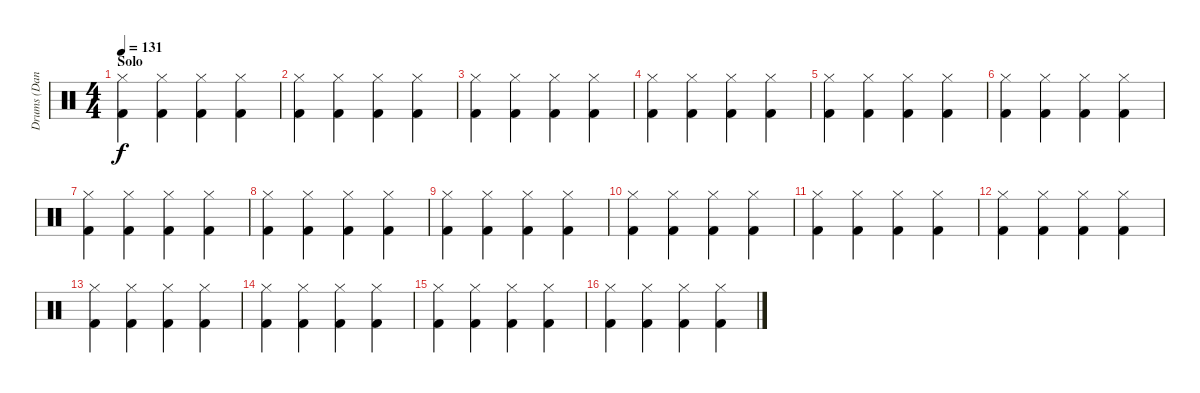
\track ("Drums (Danny Young)" "Drums (Dan") {instrument percussion}
\staff {score}
\articulation defaults
\ts (4 4)
\section ("" "Solo")
\tempo 131
\clef neutral
\ks c
("Hi-Hat (closed)" "Kick (hit) 2").4{dy f} ("Hi-Hat (closed)" "Kick (hit) 2").4 ("Hi-Hat (closed)" "Kick (hit) 2").4 ("Hi-Hat (closed)" "Kick (hit) 2").4 |
("Hi-Hat (closed)" "Kick (hit) 2").4 ("Hi-Hat (closed)" "Kick (hit) 2").4 ("Hi-Hat (closed)" "Kick (hit) 2").4 ("Hi-Hat (closed)" "Kick (hit) 2").4 |
("Hi-Hat (closed)" "Kick (hit) 2").4 ("Hi-Hat (closed)" "Kick (hit) 2").4 ("Hi-Hat (closed)" "Kick (hit) 2").4 ("Hi-Hat (closed)" "Kick (hit) 2").4 |
("Hi-Hat (closed)" "Kick (hit) 2").4 ("Hi-Hat (closed)" "Kick (hit) 2").4 ("Hi-Hat (closed)" "Kick (hit) 2").4 ("Hi-Hat (closed)" "Kick (hit) 2").4 |
("Hi-Hat (closed)" "Kick (hit) 2").4 ("Hi-Hat (closed)" "Kick (hit) 2").4 ("Hi-Hat (closed)" "Kick (hit) 2").4 ("Hi-Hat (closed)" "Kick (hit) 2").4 |
("Hi-Hat (closed)" "Kick (hit) 2").4 ("Hi-Hat (closed)" "Kick (hit) 2").4 ("Hi-Hat (closed)" "Kick (hit) 2").4 ("Hi-Hat (closed)" "Kick (hit) 2").4 |
("Hi-Hat (closed)" "Kick (hit) 2").4 ("Hi-Hat (closed)" "Kick (hit) 2").4 ("Hi-Hat (closed)" "Kick (hit) 2").4 ("Hi-Hat (closed)" "Kick (hit) 2").4 |
("Hi-Hat (closed)" "Kick (hit) 2").4 ("Hi-Hat (closed)" "Kick (hit) 2").4 ("Hi-Hat (closed)" "Kick (hit) 2").4 ("Hi-Hat (closed)" "Kick (hit) 2").4 |
("Hi-Hat (closed)" "Kick (hit) 2").4 ("Hi-Hat (closed)" "Kick (hit) 2").4 ("Hi-Hat (closed)" "Kick (hit) 2").4 ("Hi-Hat (closed)" "Kick (hit) 2").4 |
("Hi-Hat (closed)" "Kick (hit) 2").4 ("Hi-Hat (closed)" "Kick (hit) 2").4 ("Hi-Hat (closed)" "Kick (hit) 2").4 ("Hi-Hat (closed)" "Kick (hit) 2").4 |
("Hi-Hat (closed)" "Kick (hit) 2").4 ("Hi-Hat (closed)" "Kick (hit) 2").4 ("Hi-Hat (closed)" "Kick (hit) 2").4 ("Hi-Hat (closed)" "Kick (hit) 2").4 |
("Hi-Hat (closed)" "Kick (hit) 2").4 ("Hi-Hat (closed)" "Kick (hit) 2").4 ("Hi-Hat (closed)" "Kick (hit) 2").4 ("Hi-Hat (closed)" "Kick (hit) 2").4 |
("Hi-Hat (closed)" "Kick (hit) 2").4 ("Hi-Hat (closed)" "Kick (hit) 2").4 ("Hi-Hat (closed)" "Kick (hit) 2").4 ("Hi-Hat (closed)" "Kick (hit) 2").4 |
("Hi-Hat (closed)" "Kick (hit) 2").4 ("Hi-Hat (closed)" "Kick (hit) 2").4 ("Hi-Hat (closed)" "Kick (hit) 2").4 ("Hi-Hat (closed)" "Kick (hit) 2").4 |
("Hi-Hat (closed)" "Kick (hit) 2").4 ("Hi-Hat (closed)" "Kick (hit) 2").4 ("Hi-Hat (closed)" "Kick (hit) 2").4 ("Hi-Hat (closed)" "Kick (hit) 2").4 |
("Hi-Hat (closed)" "Kick (hit) 2").4 ("Hi-Hat (closed)" "Kick (hit) 2").4 ("Hi-Hat (closed)" "Kick (hit) 2").4 ("Hi-Hat (closed)" "Kick (hit) 2").4
